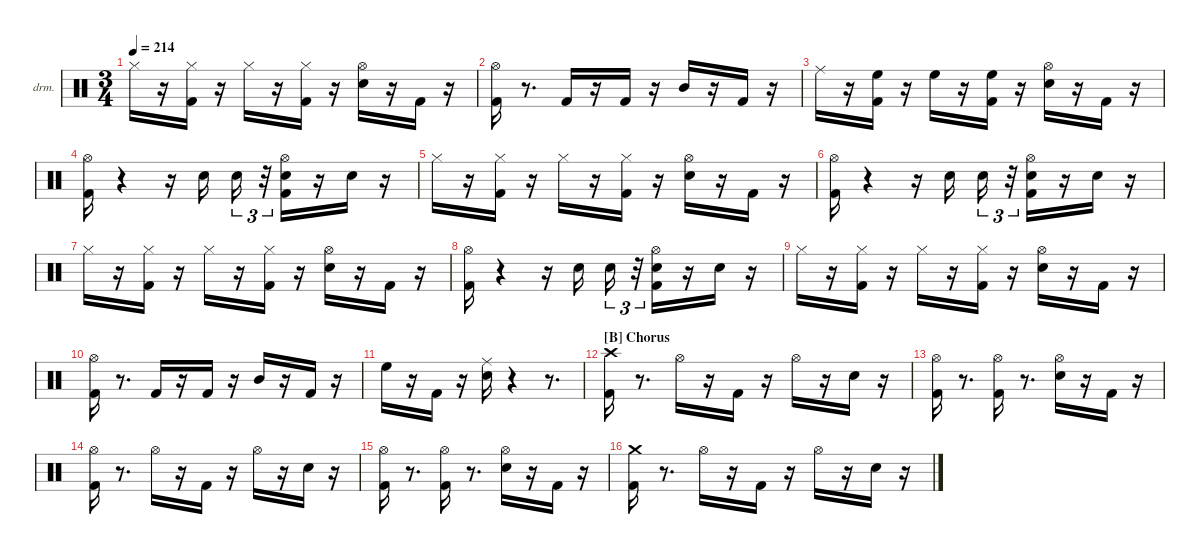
\hideDynamics
\bracketExtendMode nobrackets
\firstSystemTrackNameOrientation horizontal
\otherSystemsTrackNameOrientation horizontal
\track ("EZdrummer 3" "drm.") {instrument percussion}
\staff {score}
\articulation defaults
\ts (3 4)
\tempo 214
\clef neutral
\ks aminor "Hi-Hat (closed)"{acc #}.16{dy f beam Down}
r.16{beam Down} ("Kick (hit) 2" "Hi-Hat (closed)"{acc #}).16{dy ff beam Down} r.16{beam Down} "Hi-Hat (closed)"{acc #}.16{dy pp beam Down} r.16{beam Down} ("Kick (hit) 2" "Hi-Hat (closed)"{acc #}).16{dy f beam Down} r.16{beam Down} ("Snare (hit) 2" "Hi-Hat (open)"{acc #}).16{dy ff beam Down} r.16{beam Down} "Kick (hit) 2".16{dy mf beam Up} r.16{beam Up} |
("Kick (hit) 2" "Hi-Hat (open)"{acc #}).16{dy ff beam Down} r.8{d beam Down} "Kick (hit) 2".16{beam Up} r.16{beam Up} "Kick (hit) 2".16{beam Up} r.16{beam Up} "Mid Tom (hit)".16{beam Up} r.16{beam Up} "Kick (hit) 2".16{beam Up} r.16{beam Up} |
"Ride (middle)"{acc #}.16{beam Down} r.16{beam Down} ("Kick (hit) 2" "High Floor Tom (hit)").16{beam Down} r.16{beam Down} "High Floor Tom (hit)".16{dy fff beam Down} r.16{beam Down} ("Kick (hit) 2" "High Floor Tom (hit)").16{dy f beam Down} r.16{beam Down} ("Snare (hit) 2" "Hi-Hat (open)"{acc #}).16{dy ff beam Down} r.16{beam Down} "Kick (hit) 2".16{dy mf beam Up} r.16{beam Up} |
("Kick (hit) 2" "Hi-Hat (open)"{acc #}).16{dy ff beam Down} r.4{beam Down} r.16{beam Down} "Snare (hit) 2".16{dy f beam Down} "Snare (hit) 2".16{tu (3 2) dy p beam Down} r.32{tu (3 2) beam Down} ("Kick (hit) 2" "Snare (hit) 2" "Hi-Hat (open)"{acc #}).16{dy f beam Down} r.16{beam Down} "Snare (hit) 2".16{dy fff beam Down} r.16{beam Down} |
"Hi-Hat (closed)"{acc #}.16{dy f beam Down} r.16{beam Down} ("Kick (hit) 2" "Hi-Hat (closed)"{acc #}).16{dy ff beam Down} r.16{beam Down} "Hi-Hat (closed)"{acc #}.16{dy pp beam Down} r.16{beam Down} ("Kick (hit) 2" "Hi-Hat (closed)"{acc #}).16{dy f beam Down} r.16{beam Down} ("Snare (hit) 2" "Hi-Hat (open)"{acc #}).16{dy ff beam Down} r.16{beam Down} "Kick (hit) 2".16{dy mf beam Up} r.16{beam Up} |
("Kick (hit) 2" "Hi-Hat (open)"{acc #}).16{dy ff beam Down} r.4{beam Down} r.16{beam Down} "Snare (hit) 2".16{dy f beam Down} "Snare (hit) 2".16{tu (3 2) dy p beam Down} r.32{tu (3 2) beam Down} ("Kick (hit) 2" "Snare (hit) 2" "Hi-Hat (open)"{acc #}).16{dy f beam Down} r.16{beam Down} "Snare (hit) 2".16{dy fff beam Down} r.16{beam Down} |
"Hi-Hat (closed)"{acc #}.16{dy f beam Down} r.16{beam Down} ("Kick (hit) 2" "Hi-Hat (closed)"{acc #}).16{dy ff beam Down} r.16{beam Down} "Hi-Hat (closed)"{acc #}.16{dy pp beam Down} r.16{beam Down} ("Kick (hit) 2" "Hi-Hat (closed)"{acc #}).16{dy f beam Down} r.16{beam Down} ("Snare (hit) 2" "Hi-Hat (open)"{acc #}).16{dy ff beam Down} r.16{beam Down} "Kick (hit) 2".16{dy mf beam Up} r.16{beam Up} |
("Kick (hit) 2" "Hi-Hat (open)"{acc #}).16{dy fff beam Down} r.4{beam Down} r.16{beam Down} "Snare (hit) 2".16{dy f beam Down} "Snare (hit) 2".16{tu (3 2) dy p beam Down} r.32{tu (3 2) beam Down} ("Hi-Hat (open)"{acc #} "Kick (hit) 2" "Snare (hit) 2").16{dy ff beam Down} r.16{beam Down} "Snare (hit) 2".16{dy fff beam Down} r.16{beam Down} |
"Hi-Hat (closed)"{acc #}.16{dy f beam Down} r.16{beam Down} ("Kick (hit) 2" "Hi-Hat (closed)"{acc #}).16{dy ff beam Down} r.16{beam Down} "Hi-Hat (closed)"{acc #}.16{dy pp beam Down} r.16{beam Down} ("Kick (hit) 2" "Hi-Hat (closed)"{acc #}).16{dy f beam Down} r.16{beam Down} ("Snare (hit) 2" "Hi-Hat (open)"{acc #}).16{dy ff beam Down} r.16{beam Down} "Kick (hit) 2".16{dy mf beam Up} r.16{beam Up} |
("Kick (hit) 2" "Hi-Hat (open)"{acc #}).16{dy fff beam Down} r.8{d beam Down} "Kick (hit) 2".16{dy ff beam Up} r.16{beam Up} "Kick (hit) 2".16{beam Up} r.16{beam Up} "Mid Tom (hit)".16{beam Up} r.16{beam Up} "Kick (hit) 2".16{beam Up} r.16{beam Up} |
"High Floor Tom (hit)".16{beam Down} r.16{beam Down} "Kick (hit) 2".16{beam Up} r.16{beam Up} ("Snare (hit) 2" "Ride (middle)"{acc #}).16{dy fff beam Down} r.4{beam Down} r.8{d beam Down} |
\section ("B" "Chorus")
("Kick (hit) 2" "Crash high (hit)"{acc #}).16{beam Down} r.8{d beam Down} "Hi-Hat (open)"{acc #}.16{dy mf beam Down} r.16{beam Down} "Kick (hit) 2".16{dy ff beam Up} r.16{beam Up} "Hi-Hat (open)"{acc #}.16{dy f beam Down} r.16{beam Down} "Snare (hit) 2".16{dy ff beam Down} r.16{beam Down} |
("Kick (hit) 2" "Hi-Hat (open)"{acc #}).16{dy fff beam Down} r.8{d beam Down} ("Kick (hit) 2" "Hi-Hat (open)"{acc #}).16{dy f beam Down} r.8{d beam Down} ("Snare (hit) 2" "Hi-Hat (open)"{acc #}).16{beam Down} r.16{beam Down} "Kick (hit) 2".16{dy mp beam Up} r.16{beam Up} |
("Kick (hit) 2" "Hi-Hat (open)"{acc #}).16{dy fff beam Down} r.8{d beam Down} "Hi-Hat (open)"{acc #}.16{dy mf beam Down} r.16{beam Down} "Kick (hit) 2".16{dy ff beam Up} r.16{beam Up} "Hi-Hat (open)"{acc #}.16{dy f beam Down} r.16{beam Down} "Snare (hit) 2".16{dy ff beam Down} r.16{beam Down} |
("Kick (hit) 2" "Hi-Hat (open)"{acc #}).16{dy fff beam Down} r.8{d beam Down} ("Kick (hit) 2" "Hi-Hat (open)"{acc #}).16{dy ff beam Down} r.8{d beam Down} ("Snare (hit) 2" "Hi-Hat (open)"{acc #}).16{dy f beam Down} r.16{beam Down} "Kick (hit) 2".16{dy mp beam Up} r.16{beam Up} |
("Kick (hit) 2" "Crash medium (hit)").16{dy fff beam Down} r.8{d beam Down} "Hi-Hat (open)"{acc #}.16{dy mf beam Down} r.16{beam Down} "Kick (hit) 2".16{dy ff beam Up} r.16{beam Up} "Hi-Hat (open)"{acc #}.16{dy f beam Down} r.16{beam Down} "Snare (hit) 2".16{dy ff beam Down} r.16{beam Down}
